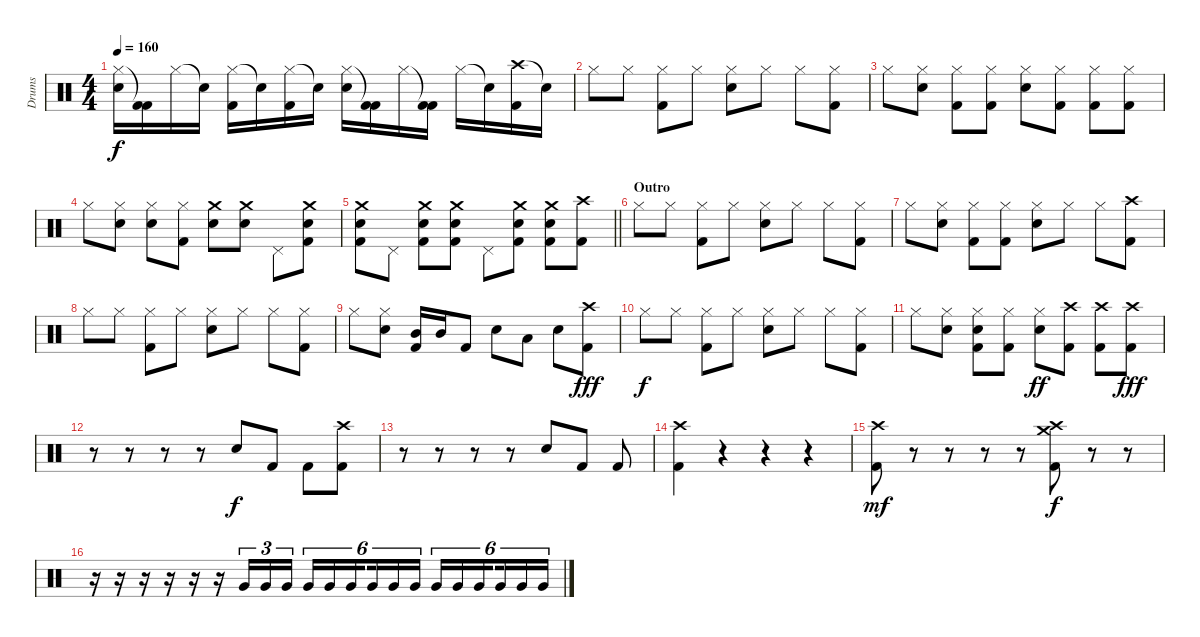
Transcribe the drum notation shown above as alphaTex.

\track ("Drums" "Drums") {instrument percussion}
\staff {score}
\articulation defaults
\ts (4 4)
\tempo 160
\clef neutral
\ks c
("Hi-Hat (closed)" "Snare (hit) 2").16{dy f} ("Kick (hit) 2"{t} "Kick (hit) 2").16 "Hi-Hat (closed)".16 "Snare (hit)"{t}.16 ("Hi-Hat (closed)" "Kick (hit) 2").16 "Snare (hit)"{t}.16 ("Hi-Hat (closed)" "Kick (hit) 2").16 "Snare (hit)"{t}.16 ("Hi-Hat (closed)" "Snare (hit) 2").16 ("Kick (hit) 2"{t} "Kick (hit) 2").16 "Hi-Hat (closed)".16 ("Kick (hit) 2"{t} "Kick (hit) 2").16 "Hi-Hat (closed)".16 "Snare (hit)"{t}.16 ("Crash high (hit)" "Kick (hit) 2").16 "Snare (hit)"{t}.16 |
"Hi-Hat (closed)".8 "Hi-Hat (closed)".8 ("Hi-Hat (closed)" "Kick (hit) 2").8 "Hi-Hat (closed)".8 ("Hi-Hat (closed)" "Snare (hit) 2").8 "Hi-Hat (closed)".8 "Hi-Hat (closed)".8 ("Hi-Hat (closed)" "Kick (hit) 2").8 |
"Hi-Hat (closed)".8 ("Hi-Hat (closed)" "Snare (hit) 2").8 ("Hi-Hat (closed)" "Kick (hit) 2").8 ("Hi-Hat (closed)" "Kick (hit) 2").8 ("Hi-Hat (closed)" "Snare (hit) 2").8 ("Hi-Hat (closed)" "Kick (hit) 2").8 ("Hi-Hat (closed)" "Kick (hit) 2").8 ("Hi-Hat (closed)" "Kick (hit) 2").8 |
"Hi-Hat (closed)".8 ("Hi-Hat (closed)" "Snare (hit) 2").8 ("Hi-Hat (closed)" "Snare (hit) 2").8 ("Hi-Hat (closed)" "Kick (hit) 2").8 ("Crash medium (hit)" "Snare (hit) 2").8 ("Crash medium (hit)" "Snare (hit) 2").8 "Pedal Hi-Hat (hit)".8 ("Crash medium (hit)" "Snare (hit) 2" "Kick (hit) 2").8 |
\barLineRight lightlight
("Crash medium (hit)" "Snare (hit) 2" "Kick (hit) 2").8 "Pedal Hi-Hat (hit)".8 ("Crash medium (hit)" "Snare (hit) 2" "Kick (hit) 2").8 ("Crash medium (hit)" "Snare (hit) 2" "Kick (hit) 2").8 "Pedal Hi-Hat (hit)".8 ("Crash medium (hit)" "Snare (hit) 2" "Kick (hit) 2").8 ("Crash medium (hit)" "Snare (hit) 2" "Kick (hit) 2").8 ("Crash high (hit)" "Kick (hit) 2").8 |
\section ("" "Outro")
"Hi-Hat (closed)".8 "Hi-Hat (closed)".8 ("Hi-Hat (closed)" "Kick (hit) 2").8 "Hi-Hat (closed)".8 ("Hi-Hat (closed)" "Snare (hit) 2").8 "Hi-Hat (closed)".8 "Hi-Hat (closed)".8 ("Hi-Hat (closed)" "Kick (hit) 2").8 |
"Hi-Hat (closed)".8 ("Hi-Hat (closed)" "Snare (hit) 2").8 ("Hi-Hat (closed)" "Kick (hit) 2").8 ("Hi-Hat (closed)" "Kick (hit) 2").8 ("Hi-Hat (closed)" "Snare (hit) 2").8 "Hi-Hat (closed)".8 "Hi-Hat (closed)".8 ("Crash high (hit)" "Kick (hit) 2").8 |
"Hi-Hat (closed)".8 "Hi-Hat (closed)".8 ("Hi-Hat (closed)" "Kick (hit) 2").8 "Hi-Hat (closed)".8 ("Hi-Hat (closed)" "Snare (hit) 2").8 "Hi-Hat (closed)".8 "Hi-Hat (closed)".8 ("Hi-Hat (closed)" "Kick (hit) 2").8 |
"Hi-Hat (closed)".8 ("Hi-Hat (closed)" "Snare (hit) 2").8 ("Mid Tom (hit)" "Kick (hit) 2").16 "Mid Tom (hit)".16 "Kick (hit) 2".8 "Snare (hit) 2".8 "Low Tom (hit)".8 "Snare (hit) 2".8 ("Crash high (hit)" "Kick (hit) 2").8{dy fff} |
"Hi-Hat (closed)".8{dy f} "Hi-Hat (closed)".8 ("Hi-Hat (closed)" "Kick (hit) 2").8 "Hi-Hat (closed)".8 ("Hi-Hat (closed)" "Snare (hit) 2").8 "Hi-Hat (closed)".8 "Hi-Hat (closed)".8 ("Hi-Hat (closed)" "Kick (hit) 2").8 |
"Hi-Hat (closed)".8 ("Hi-Hat (closed)" "Snare (hit) 2").8 ("Hi-Hat (closed)" "Snare (hit) 2" "Kick (hit) 2").8 ("Hi-Hat (closed)" "Kick (hit) 2").8 ("Hi-Hat (closed)" "Snare (hit) 2").8{dy ff} ("Crash high (hit)" "Kick (hit) 2").8 ("Crash high (hit)" "Kick (hit) 2").8 ("Crash high (hit)" "Kick (hit) 2").8{dy fff} |
r.8 r.8 r.8 r.8 "Snare (hit) 2".8{dy f} "Kick (hit) 2".8 "Kick (hit) 2".8 ("Crash high (hit)" "Kick (hit) 2").8 |
r.8 r.8 r.8 r.8 "Snare (hit) 2".8 "Kick (hit) 2".8 "Kick (hit) 2".8 |
("Crash high (hit)" "Kick (hit) 2").4 r.4 r.4 r.4 |
("Crash high (hit)" "Kick (hit) 2").8{dy mf} r.8 r.8 r.8 r.8 ("Crash medium (hit)" "Crash high (hit)" "Kick (hit) 2").8{dy f} r.8 r.8 |
r.16 r.16 r.16 r.16 r.16 r.16 "Very Low Tom (hit)".16{tu (3 2)} "Very Low Tom (hit)".16{tu (3 2)} "Very Low Tom (hit)".16{tu (3 2)} "Very Low Tom (hit)".16{tu (6 4)} "Very Low Tom (hit)".16{tu (6 4)} "Very Low Tom (hit)".16{tu (6 4) beam splitsecondary} "Very Low Tom (hit)".16{tu (6 4)} "Very Low Tom (hit)".16{tu (6 4)} "Very Low Tom (hit)".16{tu (6 4)} "Very Low Tom (hit)".16{tu (6 4)} "Very Low Tom (hit)".16{tu (6 4)} "Very Low Tom (hit)".16{tu (6 4) beam splitsecondary} "Very Low Tom (hit)".16{tu (6 4)} "Very Low Tom (hit)".16{tu (6 4)} "Very Low Tom (hit)".16{tu (6 4)}
